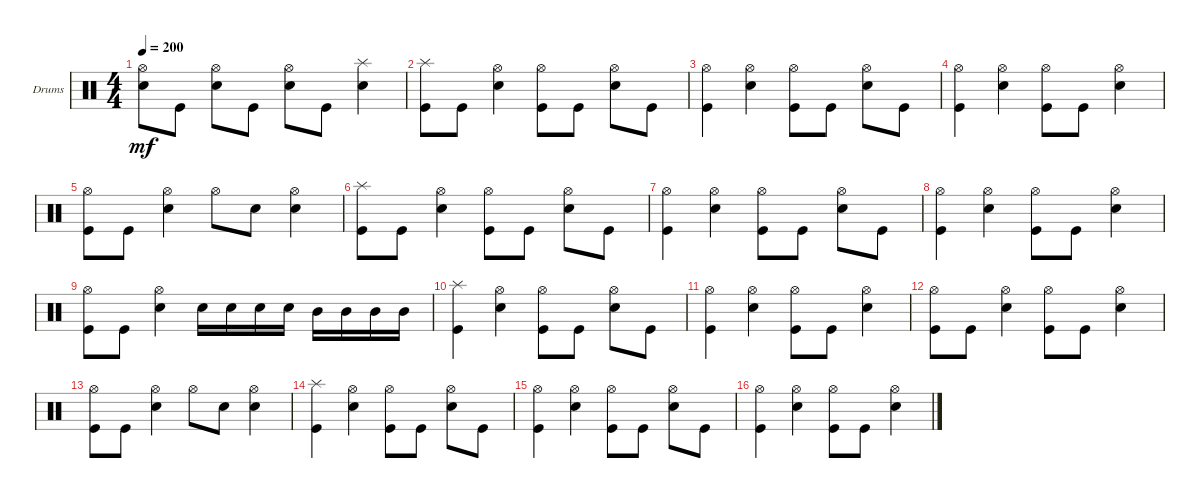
\defaultSystemsLayout 4
\bracketExtendMode groupsimilarinstruments
\firstSystemTrackNameOrientation horizontal
\otherSystemsTrackNameOrientation horizontal
\track ("Hell on da drums" "Drums") {instrument percussion}
\staff {score}
\articulation defaults
\ts (4 4)
\tempo 200
\clef neutral
\ks c
("Snare (hit) 2" "Hi-Hat (open)").8{dy mf} "Kick (hit)".8 ("Snare (hit) 2" "Hi-Hat (open)").8 "Kick (hit)".8 ("Snare (hit) 2" "Hi-Hat (open)").8 "Kick (hit)".8 ("Snare (hit) 2" "Splash (hit)").4 |
("Kick (hit)" "Splash (hit)").8 "Kick (hit)".8 ("Snare (hit) 2" "Hi-Hat (open)").4 ("Kick (hit)" "Hi-Hat (open)").8 "Kick (hit)".8 ("Snare (hit) 2" "Hi-Hat (open)").8 "Kick (hit)".8 |
("Kick (hit)" "Hi-Hat (open)").4 ("Snare (hit) 2" "Hi-Hat (open)").4 ("Kick (hit)" "Hi-Hat (open)").8 "Kick (hit)".8 ("Snare (hit) 2" "Hi-Hat (open)").8 "Kick (hit)".8 |
("Kick (hit)" "Hi-Hat (open)").4 ("Snare (hit) 2" "Hi-Hat (open)").4 ("Kick (hit)" "Hi-Hat (open)").8 "Kick (hit)".8 ("Snare (hit) 2" "Hi-Hat (open)").4 |
("Kick (hit)" "Hi-Hat (open)").8 "Kick (hit)".8 ("Snare (hit) 2" "Hi-Hat (open)").4 "Hi-Hat (open)".8 "Snare (hit) 2".8 ("Snare (hit) 2" "Hi-Hat (open)").4 |
("Kick (hit)" "Splash (hit)").8 "Kick (hit)".8 ("Snare (hit) 2" "Hi-Hat (open)").4 ("Kick (hit)" "Hi-Hat (open)").8 "Kick (hit)".8 ("Snare (hit) 2" "Hi-Hat (open)").8 "Kick (hit)".8 |
("Kick (hit)" "Hi-Hat (open)").4 ("Snare (hit) 2" "Hi-Hat (open)").4 ("Kick (hit)" "Hi-Hat (open)").8 "Kick (hit)".8 ("Snare (hit) 2" "Hi-Hat (open)").8 "Kick (hit)".8 |
("Kick (hit)" "Hi-Hat (open)").4 ("Snare (hit) 2" "Hi-Hat (open)").4 ("Kick (hit)" "Hi-Hat (open)").8 "Kick (hit)".8 ("Snare (hit) 2" "Hi-Hat (open)").4 |
("Kick (hit)" "Hi-Hat (open)").8 "Kick (hit)".8 ("Snare (hit) 2" "Hi-Hat (open)").4 "Snare (hit) 2".16 "Snare (hit) 2".16 "Snare (hit) 2".16 "Snare (hit) 2".16 "Mid Tom (hit)".16 "Mid Tom (hit)".16 "Mid Tom (hit)".16 "Mid Tom (hit)".16 |
("Kick (hit)" "Splash (hit)").4 ("Snare (hit) 2" "Hi-Hat (open)").4 ("Kick (hit)" "Hi-Hat (open)").8 "Kick (hit)".8 ("Snare (hit) 2" "Hi-Hat (open)").8 "Kick (hit)".8 |
("Kick (hit)" "Hi-Hat (open)").4 ("Snare (hit) 2" "Hi-Hat (open)").4 ("Kick (hit)" "Hi-Hat (open)").8 "Kick (hit)".8 ("Snare (hit) 2" "Hi-Hat (open)").4 |
("Kick (hit)" "Hi-Hat (open)").8 "Kick (hit)".8 ("Snare (hit) 2" "Hi-Hat (open)").4 ("Kick (hit)" "Hi-Hat (open)").8 "Kick (hit)".8 ("Snare (hit) 2" "Hi-Hat (open)").4 |
("Kick (hit)" "Hi-Hat (open)").8 "Kick (hit)".8 ("Snare (hit) 2" "Hi-Hat (open)").4 "Hi-Hat (open)".8 "Snare (hit) 2".8 ("Snare (hit) 2" "Hi-Hat (open)").4 |
("Kick (hit)" "Splash (hit)").4 ("Snare (hit) 2" "Hi-Hat (open)").4 ("Kick (hit)" "Hi-Hat (open)").8 "Kick (hit)".8 ("Snare (hit) 2" "Hi-Hat (open)").8 "Kick (hit)".8 |
("Kick (hit)" "Hi-Hat (open)").4 ("Snare (hit) 2" "Hi-Hat (open)").4 ("Kick (hit)" "Hi-Hat (open)").8 "Kick (hit)".8 ("Snare (hit) 2" "Hi-Hat (open)").8 "Kick (hit)".8 |
("Kick (hit)" "Hi-Hat (open)").4 ("Snare (hit) 2" "Hi-Hat (open)").4 ("Kick (hit)" "Hi-Hat (open)").8 "Kick (hit)".8 ("Snare (hit) 2" "Hi-Hat (open)").4
